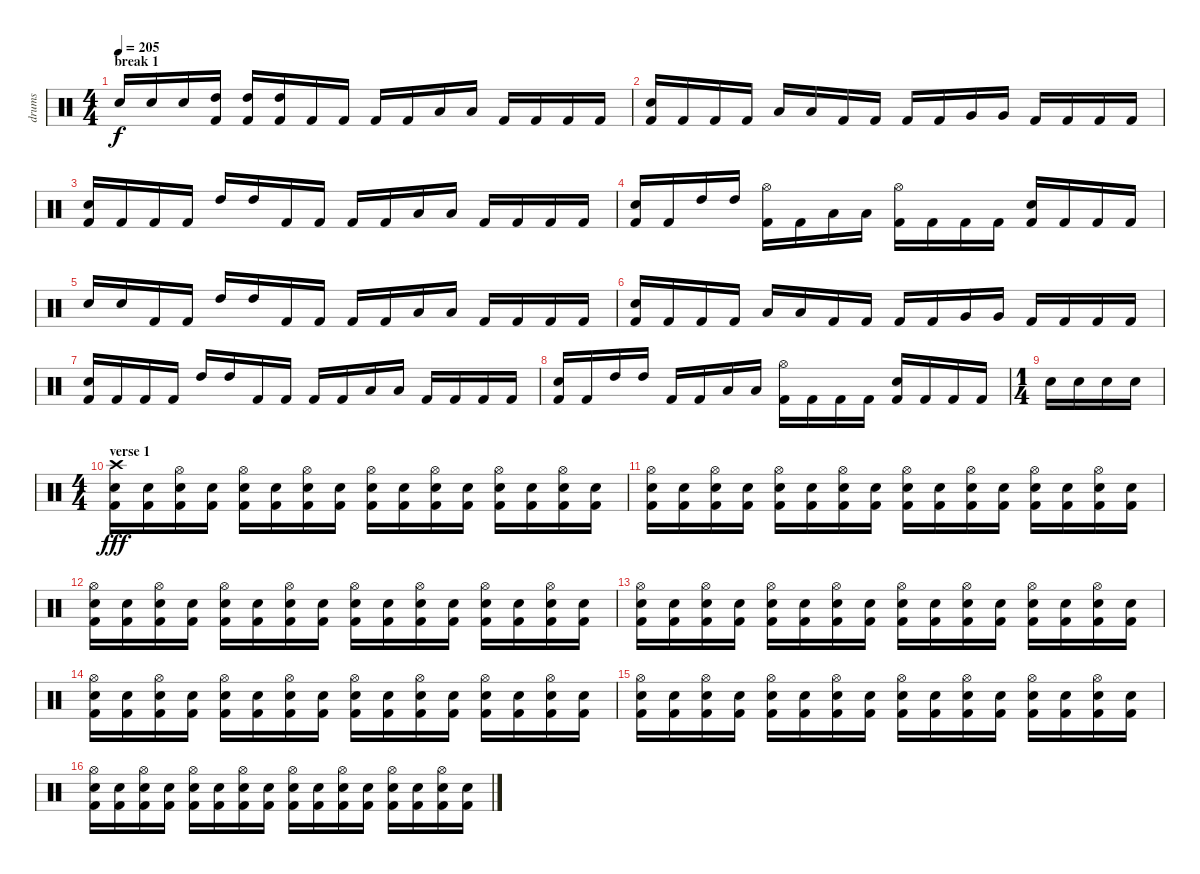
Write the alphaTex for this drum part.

\track ("drums" "drums") {instrument percussion}
\staff {score}
\articulation defaults
\ts (4 4)
\section ("" "break 1")
\tempo 205
\clef neutral
\ks c "Electric Snare (hit)".16{dy f} "Electric Snare (hit)".16 "Electric Snare (hit)".16
("High Tom (hit)" "Kick (hit) 2").16 ("High Tom (hit)" "Kick (hit) 2").16 ("High Tom (hit)" "Kick (hit) 2").16 "Kick (hit) 2".16 "Kick (hit) 2".16 "Kick (hit) 2".16 "Kick (hit) 2".16 "Low Tom (hit)".16 "Low Tom (hit)".16 "Kick (hit) 2".16 "Kick (hit) 2".16 "Kick (hit) 2".16 "Kick (hit) 2".16 |
("Electric Snare (hit)" "Kick (hit) 2").16 "Kick (hit) 2".16 "Kick (hit) 2".16 "Kick (hit) 2".16 "Low Tom (hit)".16 "Low Tom (hit)".16 "Kick (hit) 2".16 "Kick (hit) 2".16 "Kick (hit) 2".16 "Kick (hit) 2".16 "Very Low Tom (hit)".16 "Very Low Tom (hit)".16 "Kick (hit) 2".16 "Kick (hit) 2".16 "Kick (hit) 2".16 "Kick (hit) 2".16 |
("Electric Snare (hit)" "Kick (hit) 2").16 "Kick (hit) 2".16 "Kick (hit) 2".16 "Kick (hit) 2".16 "High Tom (hit)".16 "High Tom (hit)".16 "Kick (hit) 2".16 "Kick (hit) 2".16 "Kick (hit) 2".16 "Kick (hit) 2".16 "Low Tom (hit)".16 "Low Tom (hit)".16 "Kick (hit) 2".16 "Kick (hit) 2".16 "Kick (hit) 2".16 "Kick (hit) 2".16 |
("Electric Snare (hit)" "Kick (hit) 2").16 "Kick (hit) 2".16 "High Tom (hit)".16 "High Tom (hit)".16 ("Hi-Hat (open)" "Kick (hit) 2").16 "Kick (hit) 2".16 "Low Tom (hit)".16 "Low Tom (hit)".16 ("Hi-Hat (open)" "Kick (hit) 2").16 "Kick (hit) 2".16 "Kick (hit) 2".16 "Kick (hit) 2".16 ("Electric Snare (hit)" "Kick (hit) 2").16 "Kick (hit) 2".16 "Kick (hit) 2".16 "Kick (hit) 2".16 |
"Electric Snare (hit)".16 "Electric Snare (hit)".16 "Kick (hit) 2".16 "Kick (hit) 2".16 "High Tom (hit)".16 "High Tom (hit)".16 "Kick (hit) 2".16 "Kick (hit) 2".16 "Kick (hit) 2".16 "Kick (hit) 2".16 "Low Tom (hit)".16 "Low Tom (hit)".16 "Kick (hit) 2".16 "Kick (hit) 2".16 "Kick (hit) 2".16 "Kick (hit) 2".16 |
("Electric Snare (hit)" "Kick (hit) 2").16 "Kick (hit) 2".16 "Kick (hit) 2".16 "Kick (hit) 2".16 "Low Tom (hit)".16 "Low Tom (hit)".16 "Kick (hit) 2".16 "Kick (hit) 2".16 "Kick (hit) 2".16 "Kick (hit) 2".16 "Very Low Tom (hit)".16 "Very Low Tom (hit)".16 "Kick (hit) 2".16 "Kick (hit) 2".16 "Kick (hit) 2".16 "Kick (hit) 2".16 |
("Electric Snare (hit)" "Kick (hit) 2").16 "Kick (hit) 2".16 "Kick (hit) 2".16 "Kick (hit) 2".16 "High Tom (hit)".16 "High Tom (hit)".16 "Kick (hit) 2".16 "Kick (hit) 2".16 "Kick (hit) 2".16 "Kick (hit) 2".16 "Low Tom (hit)".16 "Low Tom (hit)".16 "Kick (hit) 2".16 "Kick (hit) 2".16 "Kick (hit) 2".16 "Kick (hit) 2".16 |
("Electric Snare (hit)" "Kick (hit) 2").16 "Kick (hit) 2".16 "High Tom (hit)".16 "High Tom (hit)".16 "Kick (hit) 2".16 "Kick (hit) 2".16 "Low Tom (hit)".16 "Low Tom (hit)".16 ("Hi-Hat (open)" "Kick (hit) 2").16 "Kick (hit) 2".16 "Kick (hit) 2".16 "Kick (hit) 2".16 ("Electric Snare (hit)" "Kick (hit) 2").16 "Kick (hit) 2".16 "Kick (hit) 2".16 "Kick (hit) 2".16 |
\ts (1 4)
"Electric Snare (hit)".16 "Electric Snare (hit)".16 "Electric Snare (hit)".16 "Electric Snare (hit)".16 |
\ts (4 4)
\section ("" "verse 1")
("Crash high (hit)" "Electric Snare (hit)" "Kick (hit) 2").16{dy fff} ("Electric Snare (hit)" "Kick (hit) 2").16 ("Hi-Hat (open)" "Electric Snare (hit)" "Kick (hit) 2").16 ("Electric Snare (hit)" "Kick (hit) 2").16 ("Hi-Hat (open)" "Electric Snare (hit)" "Kick (hit) 2").16 ("Electric Snare (hit)" "Kick (hit) 2").16 ("Hi-Hat (open)" "Electric Snare (hit)" "Kick (hit) 2").16 ("Electric Snare (hit)" "Kick (hit) 2").16 ("Hi-Hat (open)" "Electric Snare (hit)" "Kick (hit) 2").16 ("Electric Snare (hit)" "Kick (hit) 2").16 ("Hi-Hat (open)" "Electric Snare (hit)" "Kick (hit) 2").16 ("Electric Snare (hit)" "Kick (hit) 2").16 ("Hi-Hat (open)" "Electric Snare (hit)" "Kick (hit) 2").16 ("Electric Snare (hit)" "Kick (hit) 2").16 ("Hi-Hat (open)" "Electric Snare (hit)" "Kick (hit) 2").16 ("Electric Snare (hit)" "Kick (hit) 2").16 |
("Hi-Hat (open)" "Electric Snare (hit)" "Kick (hit) 2").16 ("Electric Snare (hit)" "Kick (hit) 2").16 ("Hi-Hat (open)" "Electric Snare (hit)" "Kick (hit) 2").16 ("Electric Snare (hit)" "Kick (hit) 2").16 ("Hi-Hat (open)" "Electric Snare (hit)" "Kick (hit) 2").16 ("Electric Snare (hit)" "Kick (hit) 2").16 ("Hi-Hat (open)" "Electric Snare (hit)" "Kick (hit) 2").16 ("Electric Snare (hit)" "Kick (hit) 2").16 ("Hi-Hat (open)" "Electric Snare (hit)" "Kick (hit) 2").16 ("Electric Snare (hit)" "Kick (hit) 2").16 ("Hi-Hat (open)" "Electric Snare (hit)" "Kick (hit) 2").16 ("Electric Snare (hit)" "Kick (hit) 2").16 ("Hi-Hat (open)" "Electric Snare (hit)" "Kick (hit) 2").16 ("Electric Snare (hit)" "Kick (hit) 2").16 ("Hi-Hat (open)" "Electric Snare (hit)" "Kick (hit) 2").16 ("Electric Snare (hit)" "Kick (hit) 2").16 |
("Hi-Hat (open)" "Electric Snare (hit)" "Kick (hit) 2").16 ("Electric Snare (hit)" "Kick (hit) 2").16 ("Hi-Hat (open)" "Electric Snare (hit)" "Kick (hit) 2").16 ("Electric Snare (hit)" "Kick (hit) 2").16 ("Hi-Hat (open)" "Electric Snare (hit)" "Kick (hit) 2").16 ("Electric Snare (hit)" "Kick (hit) 2").16 ("Hi-Hat (open)" "Electric Snare (hit)" "Kick (hit) 2").16 ("Electric Snare (hit)" "Kick (hit) 2").16 ("Hi-Hat (open)" "Electric Snare (hit)" "Kick (hit) 2").16 ("Electric Snare (hit)" "Kick (hit) 2").16 ("Hi-Hat (open)" "Electric Snare (hit)" "Kick (hit) 2").16 ("Electric Snare (hit)" "Kick (hit) 2").16 ("Hi-Hat (open)" "Electric Snare (hit)" "Kick (hit) 2").16 ("Electric Snare (hit)" "Kick (hit) 2").16 ("Hi-Hat (open)" "Electric Snare (hit)" "Kick (hit) 2").16 ("Electric Snare (hit)" "Kick (hit) 2").16 |
("Hi-Hat (open)" "Electric Snare (hit)" "Kick (hit) 2").16 ("Electric Snare (hit)" "Kick (hit) 2").16 ("Hi-Hat (open)" "Electric Snare (hit)" "Kick (hit) 2").16 ("Electric Snare (hit)" "Kick (hit) 2").16 ("Hi-Hat (open)" "Electric Snare (hit)" "Kick (hit) 2").16 ("Electric Snare (hit)" "Kick (hit) 2").16 ("Hi-Hat (open)" "Electric Snare (hit)" "Kick (hit) 2").16 ("Electric Snare (hit)" "Kick (hit) 2").16 ("Hi-Hat (open)" "Electric Snare (hit)" "Kick (hit) 2").16 ("Electric Snare (hit)" "Kick (hit) 2").16 ("Hi-Hat (open)" "Electric Snare (hit)" "Kick (hit) 2").16 ("Electric Snare (hit)" "Kick (hit) 2").16 ("Hi-Hat (open)" "Electric Snare (hit)" "Kick (hit) 2").16 ("Electric Snare (hit)" "Kick (hit) 2").16 ("Hi-Hat (open)" "Electric Snare (hit)" "Kick (hit) 2").16 ("Electric Snare (hit)" "Kick (hit) 2").16 |
("Hi-Hat (open)" "Electric Snare (hit)" "Kick (hit) 2").16 ("Electric Snare (hit)" "Kick (hit) 2").16 ("Hi-Hat (open)" "Electric Snare (hit)" "Kick (hit) 2").16 ("Electric Snare (hit)" "Kick (hit) 2").16 ("Hi-Hat (open)" "Electric Snare (hit)" "Kick (hit) 2").16 ("Electric Snare (hit)" "Kick (hit) 2").16 ("Hi-Hat (open)" "Electric Snare (hit)" "Kick (hit) 2").16 ("Electric Snare (hit)" "Kick (hit) 2").16 ("Hi-Hat (open)" "Electric Snare (hit)" "Kick (hit) 2").16 ("Electric Snare (hit)" "Kick (hit) 2").16 ("Hi-Hat (open)" "Electric Snare (hit)" "Kick (hit) 2").16 ("Electric Snare (hit)" "Kick (hit) 2").16 ("Hi-Hat (open)" "Electric Snare (hit)" "Kick (hit) 2").16 ("Electric Snare (hit)" "Kick (hit) 2").16 ("Hi-Hat (open)" "Electric Snare (hit)" "Kick (hit) 2").16 ("Electric Snare (hit)" "Kick (hit) 2").16 |
("Hi-Hat (open)" "Electric Snare (hit)" "Kick (hit) 2").16 ("Electric Snare (hit)" "Kick (hit) 2").16 ("Hi-Hat (open)" "Electric Snare (hit)" "Kick (hit) 2").16 ("Electric Snare (hit)" "Kick (hit) 2").16 ("Hi-Hat (open)" "Electric Snare (hit)" "Kick (hit) 2").16 ("Electric Snare (hit)" "Kick (hit) 2").16 ("Hi-Hat (open)" "Electric Snare (hit)" "Kick (hit) 2").16 ("Electric Snare (hit)" "Kick (hit) 2").16 ("Hi-Hat (open)" "Electric Snare (hit)" "Kick (hit) 2").16 ("Electric Snare (hit)" "Kick (hit) 2").16 ("Hi-Hat (open)" "Electric Snare (hit)" "Kick (hit) 2").16 ("Electric Snare (hit)" "Kick (hit) 2").16 ("Hi-Hat (open)" "Electric Snare (hit)" "Kick (hit) 2").16 ("Electric Snare (hit)" "Kick (hit) 2").16 ("Hi-Hat (open)" "Electric Snare (hit)" "Kick (hit) 2").16 ("Electric Snare (hit)" "Kick (hit) 2").16 |
("Hi-Hat (open)" "Electric Snare (hit)" "Kick (hit) 2").16 ("Electric Snare (hit)" "Kick (hit) 2").16 ("Hi-Hat (open)" "Electric Snare (hit)" "Kick (hit) 2").16 ("Electric Snare (hit)" "Kick (hit) 2").16 ("Hi-Hat (open)" "Electric Snare (hit)" "Kick (hit) 2").16 ("Electric Snare (hit)" "Kick (hit) 2").16 ("Hi-Hat (open)" "Electric Snare (hit)" "Kick (hit) 2").16 ("Electric Snare (hit)" "Kick (hit) 2").16 ("Hi-Hat (open)" "Electric Snare (hit)" "Kick (hit) 2").16 ("Electric Snare (hit)" "Kick (hit) 2").16 ("Hi-Hat (open)" "Electric Snare (hit)" "Kick (hit) 2").16 ("Electric Snare (hit)" "Kick (hit) 2").16 ("Hi-Hat (open)" "Electric Snare (hit)" "Kick (hit) 2").16 ("Electric Snare (hit)" "Kick (hit) 2").16 ("Hi-Hat (open)" "Electric Snare (hit)" "Kick (hit) 2").16 ("Electric Snare (hit)" "Kick (hit) 2").16
